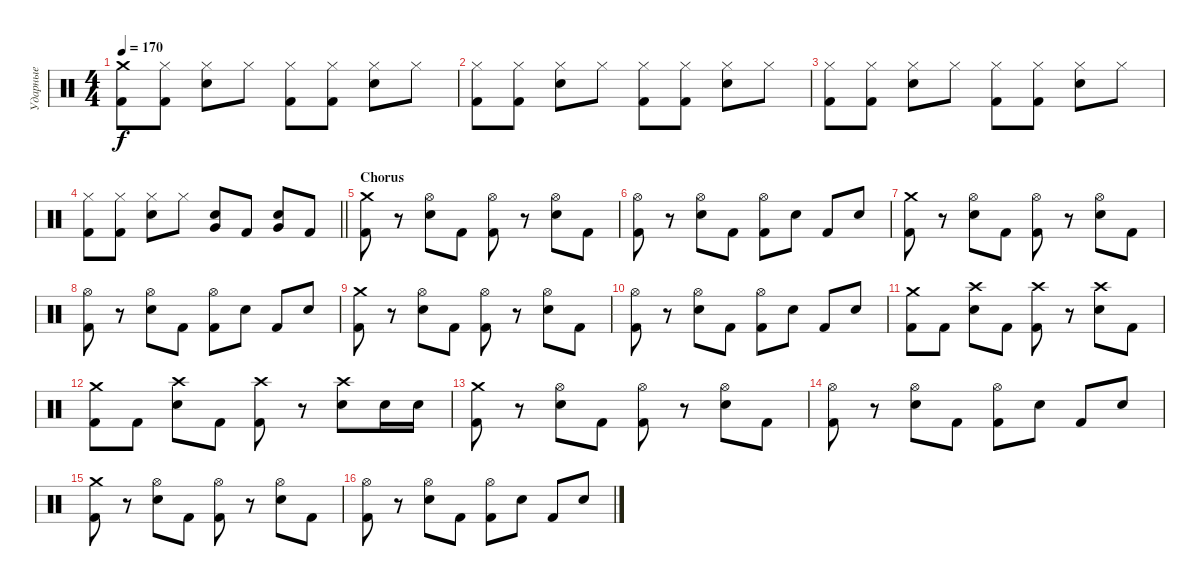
\track ("Ударные" "Ударные") {instrument percussion}
\staff {score}
\articulation defaults
\ts (4 4)
\tempo 170
\clef neutral
\ks c
("Kick (hit) 2" "Crash medium (hit)").8{dy f} ("Hi-Hat (closed)" "Kick (hit) 2").8 ("Hi-Hat (closed)" "Electric Snare (hit)").8 "Hi-Hat (closed)".8 ("Hi-Hat (closed)" "Kick (hit) 2").8 ("Hi-Hat (closed)" "Kick (hit) 2").8 ("Hi-Hat (closed)" "Electric Snare (hit)").8 "Hi-Hat (closed)".8 |
("Hi-Hat (closed)" "Kick (hit) 2").8 ("Hi-Hat (closed)" "Kick (hit) 2").8 ("Hi-Hat (closed)" "Electric Snare (hit)").8 "Hi-Hat (closed)".8 ("Hi-Hat (closed)" "Kick (hit) 2").8 ("Hi-Hat (closed)" "Kick (hit) 2").8 ("Hi-Hat (closed)" "Electric Snare (hit)").8 "Hi-Hat (closed)".8 |
("Hi-Hat (closed)" "Kick (hit) 2").8 ("Hi-Hat (closed)" "Kick (hit) 2").8 ("Hi-Hat (closed)" "Electric Snare (hit)").8 "Hi-Hat (closed)".8 ("Hi-Hat (closed)" "Kick (hit) 2").8 ("Hi-Hat (closed)" "Kick (hit) 2").8 ("Hi-Hat (closed)" "Electric Snare (hit)").8 "Hi-Hat (closed)".8 |
\barLineRight lightlight
("Hi-Hat (closed)" "Kick (hit) 2").8 ("Hi-Hat (closed)" "Kick (hit) 2").8 ("Hi-Hat (closed)" "Electric Snare (hit)").8 "Hi-Hat (closed)".8 ("Electric Snare (hit)" "Very Low Tom (hit)").8 "Kick (hit) 2".8 ("Electric Snare (hit)" "Very Low Tom (hit)").8 "Kick (hit) 2".8 |
\section ("" "Chorus")
("Kick (hit) 2" "Crash medium (hit)").8 r.8 ("Electric Snare (hit)" "Hi-Hat (open)").8 "Kick (hit) 2".8 ("Kick (hit) 2" "Hi-Hat (open)").8 r.8 ("Electric Snare (hit)" "Hi-Hat (open)").8 "Kick (hit) 2".8 |
("Kick (hit) 2" "Hi-Hat (open)").8 r.8 ("Electric Snare (hit)" "Hi-Hat (open)").8 "Kick (hit) 2".8 ("Kick (hit) 2" "Hi-Hat (open)").8 "Electric Snare (hit)".8 "Kick (hit) 2".8 "Electric Snare (hit)".8 |
("Kick (hit) 2" "Crash medium (hit)").8 r.8 ("Electric Snare (hit)" "Hi-Hat (open)").8 "Kick (hit) 2".8 ("Kick (hit) 2" "Hi-Hat (open)").8 r.8 ("Electric Snare (hit)" "Hi-Hat (open)").8 "Kick (hit) 2".8 |
("Kick (hit) 2" "Hi-Hat (open)").8 r.8 ("Electric Snare (hit)" "Hi-Hat (open)").8 "Kick (hit) 2".8 ("Kick (hit) 2" "Hi-Hat (open)").8 "Electric Snare (hit)".8 "Kick (hit) 2".8 "Electric Snare (hit)".8 |
("Kick (hit) 2" "Crash medium (hit)").8 r.8 ("Electric Snare (hit)" "Hi-Hat (open)").8 "Kick (hit) 2".8 ("Kick (hit) 2" "Hi-Hat (open)").8 r.8 ("Electric Snare (hit)" "Hi-Hat (open)").8 "Kick (hit) 2".8 |
("Kick (hit) 2" "Hi-Hat (open)").8 r.8 ("Electric Snare (hit)" "Hi-Hat (open)").8 "Kick (hit) 2".8 ("Kick (hit) 2" "Hi-Hat (open)").8 "Electric Snare (hit)".8 "Kick (hit) 2".8 "Electric Snare (hit)".8 |
("Kick (hit) 2" "Crash medium (hit)").8 "Kick (hit) 2".8 ("Electric Snare (hit)" "Crash high (hit)").8 "Kick (hit) 2".8 ("Kick (hit) 2" "Crash high (hit)").8 r.8 ("Electric Snare (hit)" "Crash high (hit)").8 "Kick (hit) 2".8 |
("Kick (hit) 2" "Crash medium (hit)").8 "Kick (hit) 2".8 ("Electric Snare (hit)" "Crash high (hit)").8 "Kick (hit) 2".8 ("Kick (hit) 2" "Crash high (hit)").8 r.8 ("Electric Snare (hit)" "Crash high (hit)").8 "Electric Snare (hit)".16 "Electric Snare (hit)".16 |
("Kick (hit) 2" "Crash medium (hit)").8 r.8 ("Electric Snare (hit)" "Hi-Hat (open)").8 "Kick (hit) 2".8 ("Kick (hit) 2" "Hi-Hat (open)").8 r.8 ("Electric Snare (hit)" "Hi-Hat (open)").8 "Kick (hit) 2".8 |
("Kick (hit) 2" "Hi-Hat (open)").8 r.8 ("Electric Snare (hit)" "Hi-Hat (open)").8 "Kick (hit) 2".8 ("Kick (hit) 2" "Hi-Hat (open)").8 "Electric Snare (hit)".8 "Kick (hit) 2".8 "Electric Snare (hit)".8 |
("Kick (hit) 2" "Crash medium (hit)").8 r.8 ("Electric Snare (hit)" "Hi-Hat (open)").8 "Kick (hit) 2".8 ("Kick (hit) 2" "Hi-Hat (open)").8 r.8 ("Electric Snare (hit)" "Hi-Hat (open)").8 "Kick (hit) 2".8 |
("Kick (hit) 2" "Hi-Hat (open)").8 r.8 ("Electric Snare (hit)" "Hi-Hat (open)").8 "Kick (hit) 2".8 ("Kick (hit) 2" "Hi-Hat (open)").8 "Electric Snare (hit)".8 "Kick (hit) 2".8 "Electric Snare (hit)".8
